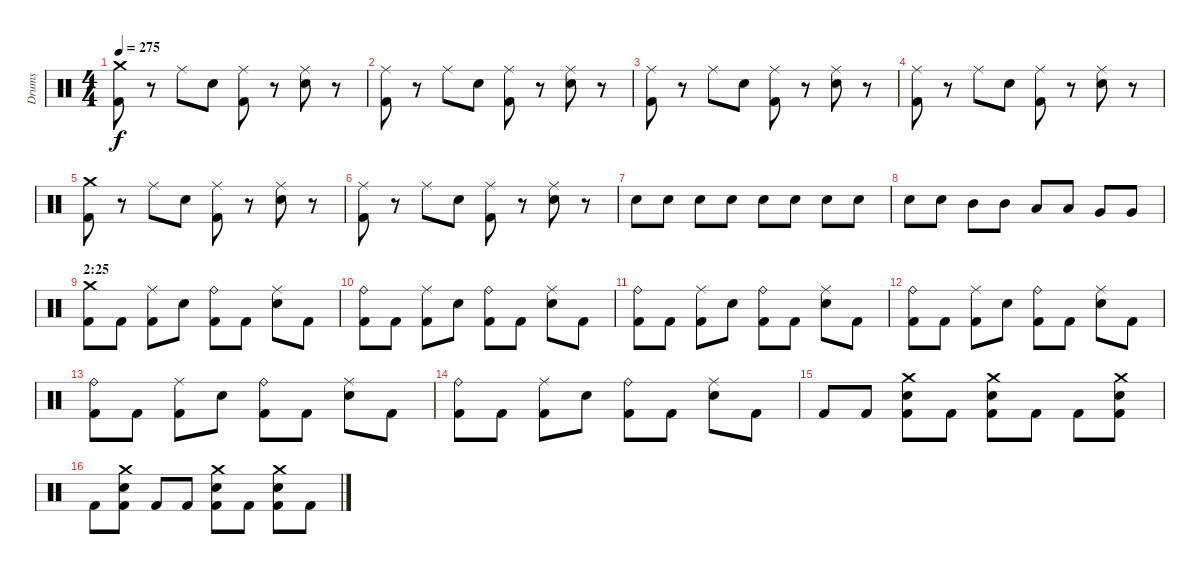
\track ("Drums" "Drums") {instrument percussion}
\staff {score}
\articulation defaults
\ts (4 4)
\tempo 275
\clef neutral
\ks c
("Crash medium (hit)" "Kick (hit) 2").8{dy f} r.8 "Ride (middle)".8 "Electric Snare (hit)".8 ("Ride (middle)" "Kick (hit) 2").8 r.8 ("Ride (middle)" "Electric Snare (hit)").8 r.8 |
("Ride (middle)" "Kick (hit) 2").8 r.8 "Ride (middle)".8 "Electric Snare (hit)".8 ("Ride (middle)" "Kick (hit) 2").8 r.8 ("Ride (middle)" "Electric Snare (hit)").8 r.8 |
("Ride (middle)" "Kick (hit) 2").8 r.8 "Ride (middle)".8 "Electric Snare (hit)".8 ("Ride (middle)" "Kick (hit) 2").8 r.8 ("Ride (middle)" "Electric Snare (hit)").8 r.8 |
("Ride (middle)" "Kick (hit) 2").8 r.8 "Ride (middle)".8 "Electric Snare (hit)".8 ("Ride (middle)" "Kick (hit) 2").8 r.8 ("Ride (middle)" "Electric Snare (hit)").8 r.8 |
("Crash medium (hit)" "Kick (hit) 2").8 r.8 "Ride (middle)".8 "Electric Snare (hit)".8 ("Ride (middle)" "Kick (hit) 2").8 r.8 ("Ride (middle)" "Electric Snare (hit)").8 r.8 |
("Ride (middle)" "Kick (hit) 2").8 r.8 "Ride (middle)".8 "Electric Snare (hit)".8 ("Ride (middle)" "Kick (hit) 2").8 r.8 ("Ride (middle)" "Electric Snare (hit)").8 r.8 |
"Electric Snare (hit)".8 "Electric Snare (hit)".8 "Electric Snare (hit)".8 "Electric Snare (hit)".8 "Electric Snare (hit)".8 "Electric Snare (hit)".8 "Electric Snare (hit)".8 "Electric Snare (hit)".8 |
"Electric Snare (hit)".8 "Electric Snare (hit)".8 "Mid Tom (hit)".8 "Mid Tom (hit)".8 "Low Tom (hit)".8 "Low Tom (hit)".8 "Very Low Tom (hit)".8 "Very Low Tom (hit)".8 |
\section ("" "2:25")
("Crash medium (hit)" "Kick (hit) 2").8 "Kick (hit) 2".8 ("Ride (middle)" "Kick (hit) 2").8 "Electric Snare (hit)".8 ("Ride (bell)" "Kick (hit) 2").8 "Kick (hit) 2".8 ("Ride (middle)" "Electric Snare (hit)").8 "Kick (hit) 2".8 |
("Ride (bell)" "Kick (hit) 2").8 "Kick (hit) 2".8 ("Ride (middle)" "Kick (hit) 2").8 "Electric Snare (hit)".8 ("Ride (bell)" "Kick (hit) 2").8 "Kick (hit) 2".8 ("Ride (middle)" "Electric Snare (hit)").8 "Kick (hit) 2".8 |
("Ride (bell)" "Kick (hit) 2").8 "Kick (hit) 2".8 ("Ride (middle)" "Kick (hit) 2").8 "Electric Snare (hit)".8 ("Ride (bell)" "Kick (hit) 2").8 "Kick (hit) 2".8 ("Ride (middle)" "Electric Snare (hit)").8 "Kick (hit) 2".8 |
("Ride (bell)" "Kick (hit) 2").8 "Kick (hit) 2".8 ("Ride (middle)" "Kick (hit) 2").8 "Electric Snare (hit)".8 ("Ride (bell)" "Kick (hit) 2").8 "Kick (hit) 2".8 ("Ride (middle)" "Electric Snare (hit)").8 "Kick (hit) 2".8 |
("Ride (bell)" "Kick (hit) 2").8 "Kick (hit) 2".8 ("Ride (middle)" "Kick (hit) 2").8 "Electric Snare (hit)".8 ("Ride (bell)" "Kick (hit) 2").8 "Kick (hit) 2".8 ("Ride (middle)" "Electric Snare (hit)").8 "Kick (hit) 2".8 |
("Ride (bell)" "Kick (hit) 2").8 "Kick (hit) 2".8 ("Ride (middle)" "Kick (hit) 2").8 "Electric Snare (hit)".8 ("Ride (bell)" "Kick (hit) 2").8 "Kick (hit) 2".8 ("Ride (middle)" "Electric Snare (hit)").8 "Kick (hit) 2".8 |
"Kick (hit) 2".8 "Kick (hit) 2".8 ("Crash medium (hit)" "Electric Snare (hit)" "Kick (hit) 2").8 "Kick (hit) 2".8 ("Crash medium (hit)" "Electric Snare (hit)" "Kick (hit) 2").8 "Kick (hit) 2".8 "Kick (hit) 2".8 ("Crash medium (hit)" "Electric Snare (hit)" "Kick (hit) 2").8 |
"Kick (hit) 2".8 ("Crash medium (hit)" "Electric Snare (hit)" "Kick (hit) 2").8 "Kick (hit) 2".8 "Kick (hit) 2".8 ("Crash medium (hit)" "Electric Snare (hit)" "Kick (hit) 2").8 "Kick (hit) 2".8 ("Crash medium (hit)" "Electric Snare (hit)" "Kick (hit) 2").8 "Kick (hit) 2".8
